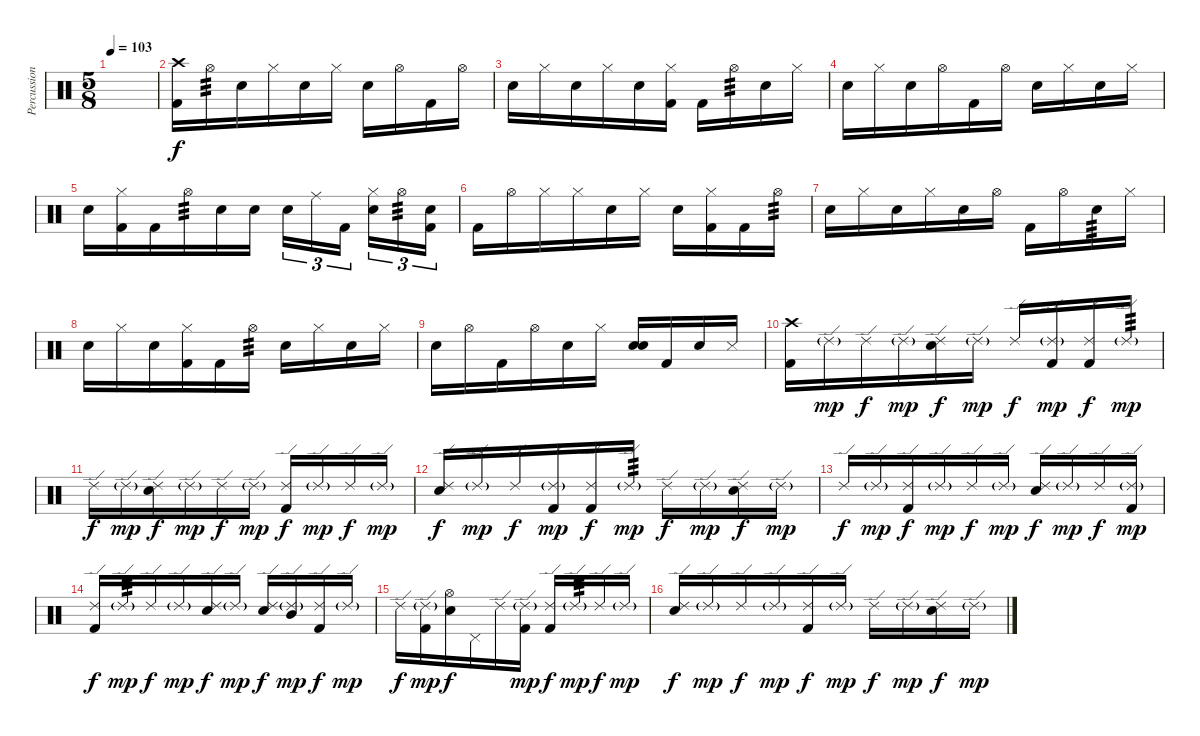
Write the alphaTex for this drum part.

\track ("Percussion" "Percussion") {instrument percussion}
\staff {score}
\articulation defaults
\ts (5 8)
\tempo 103
\clef neutral
\ks c
|
("Crash high (hit)" "Kick (hit) 2").16 "Hi-Hat (open)".16{tp 3} "Snare (hit)".16 "Hi-Hat (closed)".16 "Snare (hit) 2".16 "Hi-Hat (closed)".16 "Snare (hit)".16 "Hi-Hat (open)".16 "Kick (hit) 2".16 "Hi-Hat (open)".16 |
"Snare (hit)".16 "Hi-Hat (closed)".16 "Snare (hit) 2".16 "Hi-Hat (closed)".16 "Snare (hit)".16 ("Hi-Hat (closed)" "Kick (hit) 2").16 "Kick (hit) 2".16 "Hi-Hat (open)".16{tp 3} "Snare (hit)".16 "Hi-Hat (closed)".16 |
"Snare (hit) 2".16 "Hi-Hat (closed)".16 "Snare (hit)".16 "Hi-Hat (open)".16 "Kick (hit) 2".16 "Hi-Hat (open)".16 "Snare (hit)".16 "Hi-Hat (closed)".16 "Snare (hit) 2".16 "Hi-Hat (closed)".16 |
"Snare (hit)".16 ("Hi-Hat (closed)" "Kick (hit) 2").16 "Kick (hit) 2".16 "Hi-Hat (open)".16{tp 3} "Snare (hit)".16 "Snare (hit) 2".16 "Snare (hit)".16{tu (3 2)} "Ride (middle)".16{tu (3 2)} "Kick (hit) 2".16{tu (3 2)} ("Hi-Hat (closed)" "Snare (hit) 2").16{tu (3 2)} "Hi-Hat (open)".16{tu (3 2) tp 3} ("Snare (hit)" "Kick (hit) 2").16{tu (3 2)} |
"Kick (hit) 2".16 "Hi-Hat (open)".16 "Hi-Hat (closed)".16 "Hi-Hat (closed)".16 "Snare (hit) 2".16 "Hi-Hat (closed)".16 "Snare (hit)".16 ("Hi-Hat (closed)" "Kick (hit) 2").16 "Kick (hit) 2".16 "Hi-Hat (open)".16{tp 3} |
"Snare (hit)".16 "Hi-Hat (closed)".16 "Snare (hit) 2".16 "Hi-Hat (closed)".16 "Snare (hit)".16 "Hi-Hat (open)".16 "Kick (hit) 2".16 "Hi-Hat (open)".16 "Snare (hit)".16{tp 3} "Hi-Hat (closed)".16 |
"Snare (hit) 2".16 "Hi-Hat (closed)".16 "Snare (hit)".16 ("Hi-Hat (closed)" "Kick (hit) 2").16 "Kick (hit) 2".16 "Hi-Hat (open)".16{tp 3} "Snare (hit)".16 "Hi-Hat (closed)".16 "Snare (hit) 2".16 "Hi-Hat (closed)".16 |
"Snare (hit)".16 "Hi-Hat (open)".16 "Kick (hit) 2".16 "Hi-Hat (open)".16 "Snare (hit)".16 "Hi-Hat (closed)".16 ("Snare (hit)" "Snare (hit) 2").16 "Kick (hit) 2".16 "Snare (hit) 2".16 "Metronome (hit)".16 |
("Crash high (hit)" "Kick (hit) 2").16 "Ride (edge) 2"{g}.16{dy mp} "Ride (edge) 2".16{dy f} "Ride (edge) 2"{g}.16{dy mp} ("Ride (edge) 2" "Snare (hit) 2").16{dy f} "Ride (edge) 2"{g}.16{dy mp} "Ride (edge) 2".16{dy f} ("Ride (edge) 2"{g} "Kick (hit) 2").16{dy mp} ("Ride (edge) 2" "Kick (hit) 2").16{dy f} "Ride (edge) 2"{g}.16{tp 3 dy mp} |
"Ride (edge) 2".16{dy f} "Ride (edge) 2"{g}.16{dy mp} ("Ride (edge) 2" "Snare (hit) 2").16{dy f} "Ride (edge) 2"{g}.16{dy mp} "Ride (edge) 2".16{dy f} "Ride (edge) 2"{g}.16{dy mp} ("Ride (edge) 2" "Kick (hit) 2").16{dy f} "Ride (edge) 2"{g}.16{dy mp} "Ride (edge) 2".16{dy f} "Ride (edge) 2"{g}.16{dy mp} |
("Ride (edge) 2" "Snare (hit) 2").16{dy f} "Ride (edge) 2"{g}.16{dy mp} "Ride (edge) 2".16{dy f} ("Ride (edge) 2"{g} "Kick (hit) 2").16{dy mp} ("Ride (edge) 2" "Kick (hit) 2").16{dy f} "Ride (edge) 2"{g}.16{tp 3 dy mp} "Ride (edge) 2".16{dy f} "Ride (edge) 2"{g}.16{dy mp} ("Ride (edge) 2" "Snare (hit) 2").16{dy f} "Ride (edge) 2"{g}.16{dy mp} |
"Ride (edge) 2".16{dy f} "Ride (edge) 2"{g}.16{dy mp} ("Ride (edge) 2" "Kick (hit) 2").16{dy f} "Ride (edge) 2"{g}.16{dy mp} "Ride (edge) 2".16{dy f} "Ride (edge) 2"{g}.16{dy mp} ("Ride (edge) 2" "Snare (hit) 2").16{dy f} "Ride (edge) 2"{g}.16{dy mp} "Ride (edge) 2".16{dy f} ("Ride (edge) 2"{g} "Kick (hit) 2").16{dy mp} |
("Ride (edge) 2" "Kick (hit) 2").16{dy f} "Ride (edge) 2"{g}.16{tp 3 dy mp} "Ride (edge) 2".16{dy f} "Ride (edge) 2"{g}.16{dy mp} ("Ride (edge) 2" "Snare (hit) 2").16{dy f} "Ride (edge) 2"{g}.16{dy mp} ("Ride (edge) 2" "Snare (hit) 2").16{dy f} ("Ride (edge) 2"{g} "Mid Tom (hit)").16{dy mp} ("Ride (edge) 2" "Kick (hit) 2").16{dy f} "Ride (edge) 2"{g}.16{dy mp} |
"Ride (edge) 2".16{dy f} ("Ride (edge) 2"{g} "Kick (hit) 2").16{dy mp} ("Hi-Hat (open)" "Snare (hit) 2").16{dy f} "Pedal Hi-Hat (hit)".16 "Ride (edge) 2".16 ("Ride (edge) 2"{g} "Kick (hit) 2").16{dy mp} ("Ride (edge) 2" "Kick (hit) 2").16{dy f} "Ride (edge) 2"{g}.16{tp 3 dy mp} "Ride (edge) 2".16{dy f} "Ride (edge) 2"{g}.16{dy mp} |
("Ride (edge) 2" "Snare (hit) 2").16{dy f} "Ride (edge) 2"{g}.16{dy mp} "Ride (edge) 2".16{dy f} "Ride (edge) 2"{g}.16{dy mp} ("Ride (edge) 2" "Kick (hit) 2").16{dy f} "Ride (edge) 2"{g}.16{dy mp} "Ride (edge) 2".16{dy f} "Ride (edge) 2"{g}.16{dy mp} ("Ride (edge) 2" "Snare (hit) 2").16{dy f} "Ride (edge) 2"{g}.16{dy mp}
